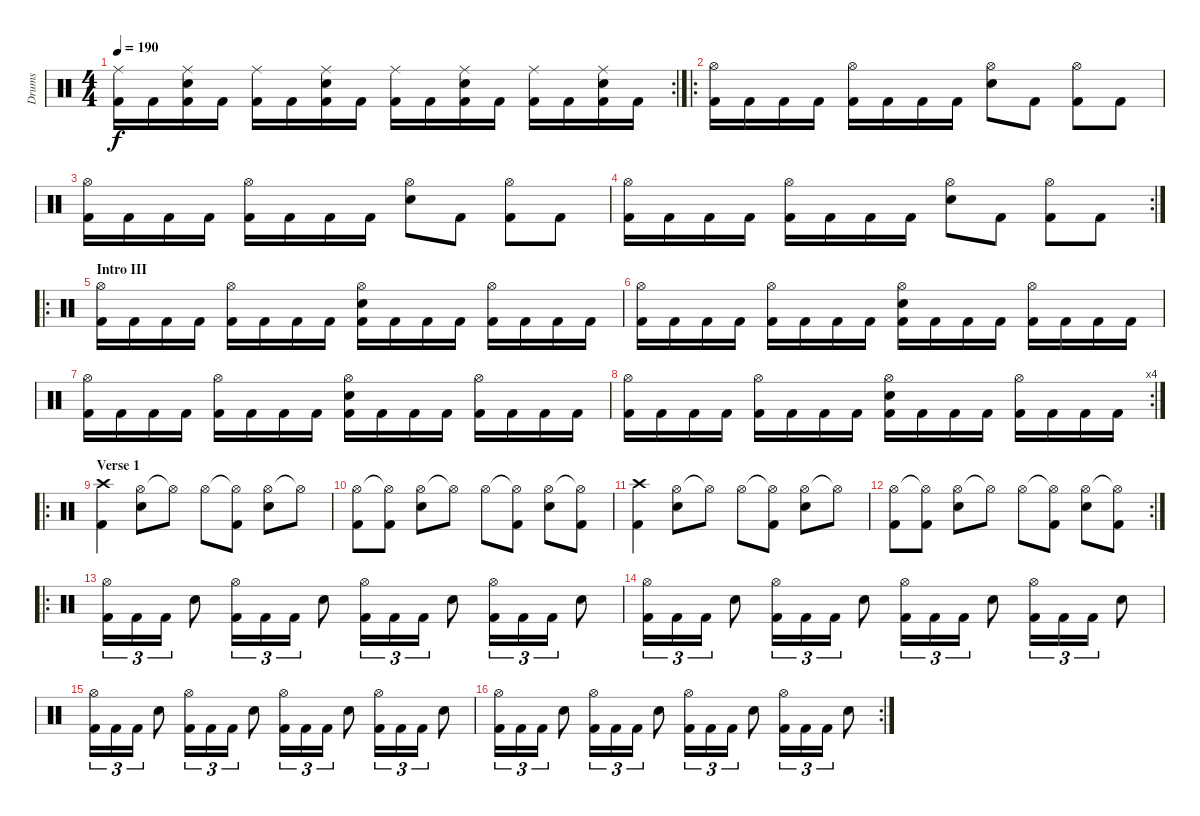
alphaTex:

\track ("Drums" "Drums") {instrument percussion}
\staff {score}
\articulation defaults
\rc 2
\ts (4 4)
\tempo 190
\clef neutral
\ks c
("Kick (hit) 2" "Ride (middle)").16{dy f} "Kick (hit) 2".16 ("Kick (hit) 2" "Ride (middle)" "Electric Snare (hit)").16 "Kick (hit) 2".16 ("Kick (hit) 2" "Ride (middle)").16 "Kick (hit) 2".16 ("Kick (hit) 2" "Ride (middle)" "Electric Snare (hit)").16 "Kick (hit) 2".16 ("Kick (hit) 2" "Ride (middle)").16 "Kick (hit) 2".16 ("Kick (hit) 2" "Ride (middle)" "Electric Snare (hit)").16 "Kick (hit) 2".16 ("Kick (hit) 2" "Ride (middle)").16 "Kick (hit) 2".16 ("Kick (hit) 2" "Ride (middle)" "Electric Snare (hit)").16 "Kick (hit) 2".16 |
\ro
("Kick (hit) 2" "Hi-Hat (open)").16 "Kick (hit) 2".16 "Kick (hit) 2".16 "Kick (hit) 2".16 ("Kick (hit) 2" "Hi-Hat (open)").16 "Kick (hit) 2".16 "Kick (hit) 2".16 "Kick (hit) 2".16 ("Hi-Hat (open)" "Electric Snare (hit)").8 "Kick (hit) 2".8 ("Hi-Hat (open)" "Kick (hit) 2").8 "Kick (hit) 2".8 |
("Kick (hit) 2" "Hi-Hat (open)").16 "Kick (hit) 2".16 "Kick (hit) 2".16 "Kick (hit) 2".16 ("Kick (hit) 2" "Hi-Hat (open)").16 "Kick (hit) 2".16 "Kick (hit) 2".16 "Kick (hit) 2".16 ("Hi-Hat (open)" "Electric Snare (hit)").8 "Kick (hit) 2".8 ("Hi-Hat (open)" "Kick (hit) 2").8 "Kick (hit) 2".8 |
\rc 2
("Kick (hit) 2" "Hi-Hat (open)").16 "Kick (hit) 2".16 "Kick (hit) 2".16 "Kick (hit) 2".16 ("Kick (hit) 2" "Hi-Hat (open)").16 "Kick (hit) 2".16 "Kick (hit) 2".16 "Kick (hit) 2".16 ("Hi-Hat (open)" "Electric Snare (hit)").8 "Kick (hit) 2".8 ("Hi-Hat (open)" "Kick (hit) 2").8 "Kick (hit) 2".8 |
\ro
\section ("" "Intro III")
("Kick (hit) 2" "Hi-Hat (open)").16 "Kick (hit) 2".16 "Kick (hit) 2".16 "Kick (hit) 2".16 ("Kick (hit) 2" "Hi-Hat (open)").16 "Kick (hit) 2".16 "Kick (hit) 2".16 "Kick (hit) 2".16 ("Kick (hit) 2" "Hi-Hat (open)" "Electric Snare (hit)").16 "Kick (hit) 2".16 "Kick (hit) 2".16 "Kick (hit) 2".16 ("Kick (hit) 2" "Hi-Hat (open)").16 "Kick (hit) 2".16 "Kick (hit) 2".16 "Kick (hit) 2".16 |
("Kick (hit) 2" "Hi-Hat (open)").16 "Kick (hit) 2".16 "Kick (hit) 2".16 "Kick (hit) 2".16 ("Kick (hit) 2" "Hi-Hat (open)").16 "Kick (hit) 2".16 "Kick (hit) 2".16 "Kick (hit) 2".16 ("Kick (hit) 2" "Hi-Hat (open)" "Electric Snare (hit)").16 "Kick (hit) 2".16 "Kick (hit) 2".16 "Kick (hit) 2".16 ("Kick (hit) 2" "Hi-Hat (open)").16 "Kick (hit) 2".16 "Kick (hit) 2".16 "Kick (hit) 2".16 |
("Kick (hit) 2" "Hi-Hat (open)").16 "Kick (hit) 2".16 "Kick (hit) 2".16 "Kick (hit) 2".16 ("Kick (hit) 2" "Hi-Hat (open)").16 "Kick (hit) 2".16 "Kick (hit) 2".16 "Kick (hit) 2".16 ("Kick (hit) 2" "Hi-Hat (open)" "Electric Snare (hit)").16 "Kick (hit) 2".16 "Kick (hit) 2".16 "Kick (hit) 2".16 ("Kick (hit) 2" "Hi-Hat (open)").16 "Kick (hit) 2".16 "Kick (hit) 2".16 "Kick (hit) 2".16 |
\rc 4
("Kick (hit) 2" "Hi-Hat (open)").16 "Kick (hit) 2".16 "Kick (hit) 2".16 "Kick (hit) 2".16 ("Kick (hit) 2" "Hi-Hat (open)").16 "Kick (hit) 2".16 "Kick (hit) 2".16 "Kick (hit) 2".16 ("Kick (hit) 2" "Hi-Hat (open)" "Electric Snare (hit)").16 "Kick (hit) 2".16 "Kick (hit) 2".16 "Kick (hit) 2".16 ("Kick (hit) 2" "Hi-Hat (open)").16 "Kick (hit) 2".16 "Kick (hit) 2".16 "Kick (hit) 2".16 |
\ro
\section ("" "Verse 1")
("Crash high (hit)" "Kick (hit) 2").4 ("Hi-Hat (open)" "Electric Snare (hit)").8 "Hi-Hat (open)"{t}.8 "Hi-Hat (open)".8 ("Hi-Hat (open)"{t} "Kick (hit) 2").8 ("Hi-Hat (open)" "Electric Snare (hit)").8 "Hi-Hat (open)"{t}.8 |
("Hi-Hat (open)" "Kick (hit) 2").8 ("Hi-Hat (open)"{t} "Kick (hit) 2").8 ("Hi-Hat (open)" "Electric Snare (hit)").8 "Hi-Hat (open)"{t}.8 "Hi-Hat (open)".8 ("Hi-Hat (open)"{t} "Kick (hit) 2").8 ("Hi-Hat (open)" "Electric Snare (hit)").8 ("Hi-Hat (open)"{t} "Kick (hit) 2").8 |
("Crash high (hit)" "Kick (hit) 2").4 ("Hi-Hat (open)" "Electric Snare (hit)").8 "Hi-Hat (open)"{t}.8 "Hi-Hat (open)".8 ("Hi-Hat (open)"{t} "Kick (hit) 2").8 ("Hi-Hat (open)" "Electric Snare (hit)").8 "Hi-Hat (open)"{t}.8 |
\rc 2
("Hi-Hat (open)" "Kick (hit) 2").8 ("Hi-Hat (open)"{t} "Kick (hit) 2").8 ("Hi-Hat (open)" "Electric Snare (hit)").8 "Hi-Hat (open)"{t}.8 "Hi-Hat (open)".8 ("Hi-Hat (open)"{t} "Kick (hit) 2").8 ("Hi-Hat (open)" "Electric Snare (hit)").8 ("Hi-Hat (open)"{t} "Kick (hit) 2").8 |
\ro
("Kick (hit) 2" "Hi-Hat (open)").16{tu (3 2)} "Kick (hit) 2".16{tu (3 2)} "Kick (hit) 2".16{tu (3 2)} "Electric Snare (hit)".8 ("Kick (hit) 2" "Hi-Hat (open)").16{tu (3 2)} "Kick (hit) 2".16{tu (3 2)} "Kick (hit) 2".16{tu (3 2)} "Electric Snare (hit)".8 ("Kick (hit) 2" "Hi-Hat (open)").16{tu (3 2)} "Kick (hit) 2".16{tu (3 2)} "Kick (hit) 2".16{tu (3 2)} "Electric Snare (hit)".8 ("Kick (hit) 2" "Hi-Hat (open)").16{tu (3 2)} "Kick (hit) 2".16{tu (3 2)} "Kick (hit) 2".16{tu (3 2)} "Electric Snare (hit)".8 |
("Kick (hit) 2" "Hi-Hat (open)").16{tu (3 2)} "Kick (hit) 2".16{tu (3 2)} "Kick (hit) 2".16{tu (3 2)} "Electric Snare (hit)".8 ("Kick (hit) 2" "Hi-Hat (open)").16{tu (3 2)} "Kick (hit) 2".16{tu (3 2)} "Kick (hit) 2".16{tu (3 2)} "Electric Snare (hit)".8 ("Kick (hit) 2" "Hi-Hat (open)").16{tu (3 2)} "Kick (hit) 2".16{tu (3 2)} "Kick (hit) 2".16{tu (3 2)} "Electric Snare (hit)".8 ("Kick (hit) 2" "Hi-Hat (open)").16{tu (3 2)} "Kick (hit) 2".16{tu (3 2)} "Kick (hit) 2".16{tu (3 2)} "Electric Snare (hit)".8 |
("Kick (hit) 2" "Hi-Hat (open)").16{tu (3 2)} "Kick (hit) 2".16{tu (3 2)} "Kick (hit) 2".16{tu (3 2)} "Electric Snare (hit)".8 ("Kick (hit) 2" "Hi-Hat (open)").16{tu (3 2)} "Kick (hit) 2".16{tu (3 2)} "Kick (hit) 2".16{tu (3 2)} "Electric Snare (hit)".8 ("Kick (hit) 2" "Hi-Hat (open)").16{tu (3 2)} "Kick (hit) 2".16{tu (3 2)} "Kick (hit) 2".16{tu (3 2)} "Electric Snare (hit)".8 ("Kick (hit) 2" "Hi-Hat (open)").16{tu (3 2)} "Kick (hit) 2".16{tu (3 2)} "Kick (hit) 2".16{tu (3 2)} "Electric Snare (hit)".8 |
\rc 2
("Kick (hit) 2" "Hi-Hat (open)").16{tu (3 2)} "Kick (hit) 2".16{tu (3 2)} "Kick (hit) 2".16{tu (3 2)} "Electric Snare (hit)".8 ("Kick (hit) 2" "Hi-Hat (open)").16{tu (3 2)} "Kick (hit) 2".16{tu (3 2)} "Kick (hit) 2".16{tu (3 2)} "Electric Snare (hit)".8 ("Kick (hit) 2" "Hi-Hat (open)").16{tu (3 2)} "Kick (hit) 2".16{tu (3 2)} "Kick (hit) 2".16{tu (3 2)} "Electric Snare (hit)".8 ("Kick (hit) 2" "Hi-Hat (open)").16{tu (3 2)} "Kick (hit) 2".16{tu (3 2)} "Kick (hit) 2".16{tu (3 2)} "Electric Snare (hit)".8
